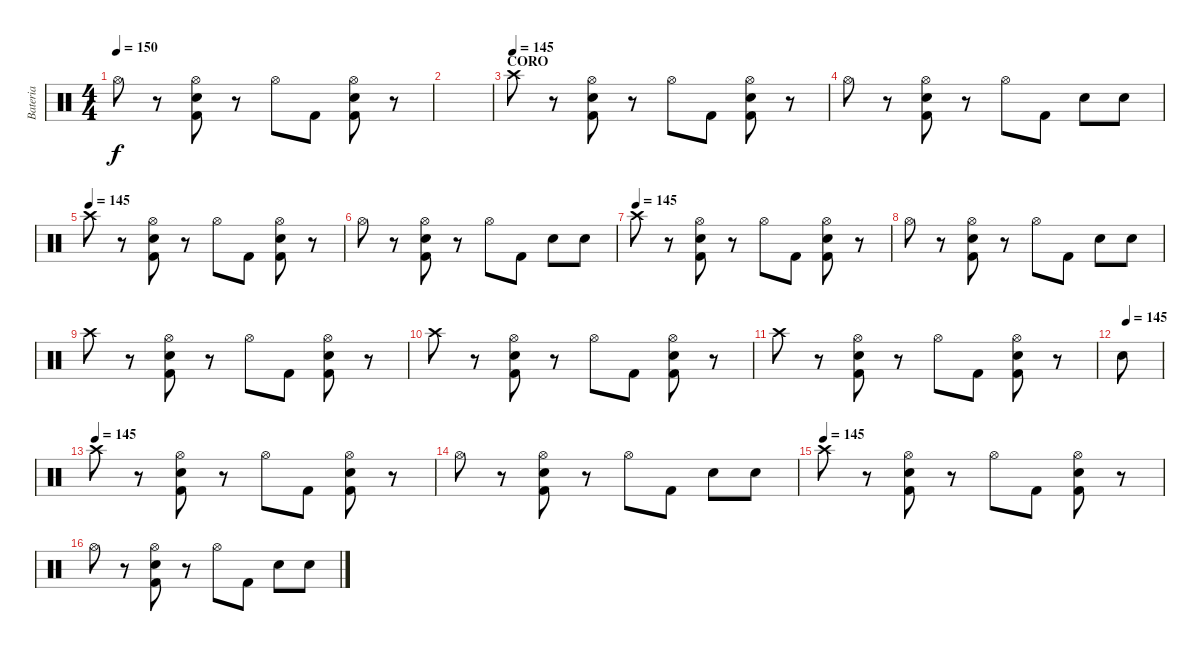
\track ("Bateria" "Bateria") {instrument percussion}
\staff {score}
\articulation defaults
\ts (4 4)
\tempo 150
\clef neutral
\ks c "Hi-Hat (open)".8{dy f}
r.8 ("Hi-Hat (open)" "Electric Snare (hit)" "Kick (hit) 2").8 r.8 "Hi-Hat (open)".8 "Kick (hit) 2".8 ("Hi-Hat (open)" "Electric Snare (hit)" "Kick (hit) 2").8 r.8 |
|
\section ("" "CORO")
\tempo (145)
"Crash high (hit)".8{balance 8} r.8 ("Hi-Hat (open)" "Electric Snare (hit)" "Kick (hit) 2").8 r.8 "Hi-Hat (open)".8 "Kick (hit) 2".8 ("Hi-Hat (open)" "Electric Snare (hit)" "Kick (hit) 2").8 r.8 |
"Hi-Hat (open)".8 r.8 ("Hi-Hat (open)" "Electric Snare (hit)" "Kick (hit) 2").8 r.8 "Hi-Hat (open)".8 "Kick (hit) 2".8 "Electric Snare (hit)".8 "Electric Snare (hit)".8 |
\tempo (145)
"Crash high (hit)".8 r.8 ("Hi-Hat (open)" "Electric Snare (hit)" "Kick (hit) 2").8 r.8 "Hi-Hat (open)".8 "Kick (hit) 2".8 ("Hi-Hat (open)" "Electric Snare (hit)" "Kick (hit) 2").8 r.8 |
"Hi-Hat (open)".8 r.8 ("Hi-Hat (open)" "Electric Snare (hit)" "Kick (hit) 2").8 r.8 "Hi-Hat (open)".8 "Kick (hit) 2".8 "Electric Snare (hit)".8 "Electric Snare (hit)".8 |
\tempo (145)
"Crash high (hit)".8 r.8 ("Hi-Hat (open)" "Electric Snare (hit)" "Kick (hit) 2").8 r.8 "Hi-Hat (open)".8 "Kick (hit) 2".8 ("Hi-Hat (open)" "Electric Snare (hit)" "Kick (hit) 2").8 r.8 |
"Hi-Hat (open)".8 r.8 ("Hi-Hat (open)" "Electric Snare (hit)" "Kick (hit) 2").8 r.8 "Hi-Hat (open)".8 "Kick (hit) 2".8 "Electric Snare (hit)".8 "Electric Snare (hit)".8 |
"Crash high (hit)".8 r.8 ("Hi-Hat (open)" "Electric Snare (hit)" "Kick (hit) 2").8 r.8 "Hi-Hat (open)".8 "Kick (hit) 2".8 ("Hi-Hat (open)" "Electric Snare (hit)" "Kick (hit) 2").8 r.8 |
"Crash high (hit)".8 r.8 ("Hi-Hat (open)" "Electric Snare (hit)" "Kick (hit) 2").8 r.8 "Hi-Hat (open)".8 "Kick (hit) 2".8 ("Hi-Hat (open)" "Electric Snare (hit)" "Kick (hit) 2").8 r.8 |
"Crash high (hit)".8 r.8 ("Hi-Hat (open)" "Electric Snare (hit)" "Kick (hit) 2").8 r.8 "Hi-Hat (open)".8 "Kick (hit) 2".8 ("Hi-Hat (open)" "Electric Snare (hit)" "Kick (hit) 2").8 r.8 |
\tempo (145 0.125)
"Electric Snare (hit)".8 |
\tempo (145)
"Crash high (hit)".8 r.8 ("Hi-Hat (open)" "Electric Snare (hit)" "Kick (hit) 2").8 r.8 "Hi-Hat (open)".8 "Kick (hit) 2".8 ("Hi-Hat (open)" "Electric Snare (hit)" "Kick (hit) 2").8 r.8 |
"Hi-Hat (open)".8 r.8 ("Hi-Hat (open)" "Electric Snare (hit)" "Kick (hit) 2").8 r.8 "Hi-Hat (open)".8 "Kick (hit) 2".8 "Electric Snare (hit)".8 "Electric Snare (hit)".8 |
\tempo (145)
"Crash high (hit)".8 r.8 ("Hi-Hat (open)" "Electric Snare (hit)" "Kick (hit) 2").8 r.8 "Hi-Hat (open)".8 "Kick (hit) 2".8 ("Hi-Hat (open)" "Electric Snare (hit)" "Kick (hit) 2").8 r.8 |
"Hi-Hat (open)".8 r.8 ("Hi-Hat (open)" "Electric Snare (hit)" "Kick (hit) 2").8 r.8 "Hi-Hat (open)".8 "Kick (hit) 2".8 "Electric Snare (hit)".8 "Electric Snare (hit)".8
